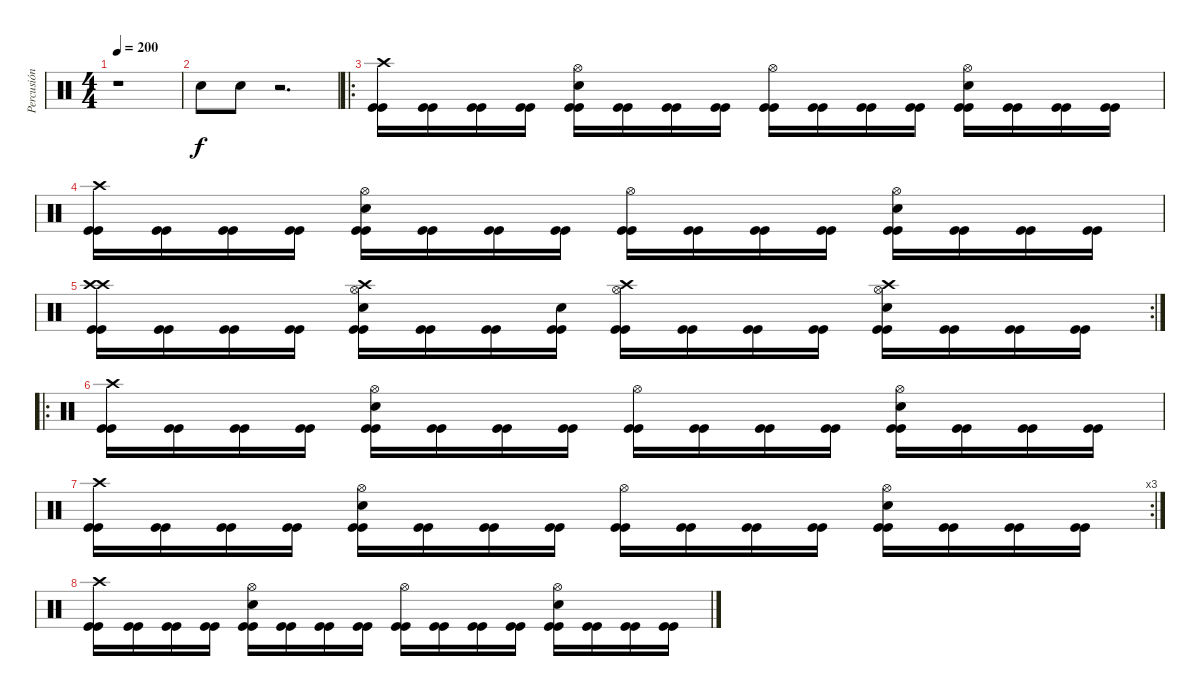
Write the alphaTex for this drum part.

\track ("Percusión" "Percusión") {instrument percussion}
\staff {score}
\articulation defaults
\ts (4 4)
\tempo 200
\clef neutral
\ks c
r.1{dy f} |
"Snare (hit) 2".8 "Snare (hit) 2".8 r.2{d} |
\ro
("Kick (hit)" "Kick (hit)" "Crash high (hit)").16 ("Kick (hit)" "Kick (hit)").16 ("Kick (hit)" "Kick (hit)").16 ("Kick (hit)" "Kick (hit)").16 ("Kick (hit)" "Kick (hit)" "Snare (hit) 2" "Hi-Hat (open)").16 ("Kick (hit)" "Kick (hit)").16 ("Kick (hit)" "Kick (hit)").16 ("Kick (hit)" "Kick (hit)").16 ("Kick (hit)" "Kick (hit)" "Hi-Hat (open)").16 ("Kick (hit)" "Kick (hit)").16 ("Kick (hit)" "Kick (hit)").16 ("Kick (hit)" "Kick (hit)").16 ("Kick (hit)" "Kick (hit)" "Snare (hit) 2" "Hi-Hat (open)").16 ("Kick (hit)" "Kick (hit)").16 ("Kick (hit)" "Kick (hit)").16 ("Kick (hit)" "Kick (hit)").16 |
("Kick (hit)" "Kick (hit)" "Crash high (hit)").16 ("Kick (hit)" "Kick (hit)").16 ("Kick (hit)" "Kick (hit)").16 ("Kick (hit)" "Kick (hit)").16 ("Kick (hit)" "Kick (hit)" "Snare (hit) 2" "Hi-Hat (open)").16 ("Kick (hit)" "Kick (hit)").16 ("Kick (hit)" "Kick (hit)").16 ("Kick (hit)" "Kick (hit)").16 ("Kick (hit)" "Kick (hit)" "Hi-Hat (open)").16 ("Kick (hit)" "Kick (hit)").16 ("Kick (hit)" "Kick (hit)").16 ("Kick (hit)" "Kick (hit)").16 ("Kick (hit)" "Kick (hit)" "Snare (hit) 2" "Hi-Hat (open)").16 ("Kick (hit)" "Kick (hit)").16 ("Kick (hit)" "Kick (hit)").16 ("Kick (hit)" "Kick (hit)").16 |
\rc 2
("Kick (hit)" "Kick (hit)" "Crash high (hit)" "Crash high (hit)").16 ("Kick (hit)" "Kick (hit)").16 ("Kick (hit)" "Kick (hit)").16 ("Kick (hit)" "Kick (hit)").16 ("Kick (hit)" "Kick (hit)" "Snare (hit) 2" "Hi-Hat (open)" "Crash high (hit)").16 ("Kick (hit)" "Kick (hit)").16 ("Kick (hit)" "Kick (hit)").16 ("Kick (hit)" "Kick (hit)" "Snare (hit)").16 ("Kick (hit)" "Kick (hit)" "Hi-Hat (open)" "Crash high (hit)").16 ("Kick (hit)" "Kick (hit)").16 ("Kick (hit)" "Kick (hit)").16 ("Kick (hit)" "Kick (hit)").16 ("Kick (hit)" "Kick (hit)" "Snare (hit) 2" "Hi-Hat (open)" "Crash high (hit)").16 ("Kick (hit)" "Kick (hit)").16 ("Kick (hit)" "Kick (hit)").16 ("Kick (hit)" "Kick (hit)").16 |
\ro
("Kick (hit)" "Kick (hit)" "Crash high (hit)").16 ("Kick (hit)" "Kick (hit)").16 ("Kick (hit)" "Kick (hit)").16 ("Kick (hit)" "Kick (hit)").16 ("Kick (hit)" "Kick (hit)" "Snare (hit) 2" "Hi-Hat (open)").16 ("Kick (hit)" "Kick (hit)").16 ("Kick (hit)" "Kick (hit)").16 ("Kick (hit)" "Kick (hit)").16 ("Kick (hit)" "Kick (hit)" "Hi-Hat (open)").16 ("Kick (hit)" "Kick (hit)").16 ("Kick (hit)" "Kick (hit)").16 ("Kick (hit)" "Kick (hit)").16 ("Kick (hit)" "Kick (hit)" "Snare (hit) 2" "Hi-Hat (open)").16 ("Kick (hit)" "Kick (hit)").16 ("Kick (hit)" "Kick (hit)").16 ("Kick (hit)" "Kick (hit)").16 |
\rc 3
("Kick (hit)" "Kick (hit)" "Crash high (hit)").16 ("Kick (hit)" "Kick (hit)").16 ("Kick (hit)" "Kick (hit)").16 ("Kick (hit)" "Kick (hit)").16 ("Kick (hit)" "Kick (hit)" "Snare (hit) 2" "Hi-Hat (open)").16 ("Kick (hit)" "Kick (hit)").16 ("Kick (hit)" "Kick (hit)").16 ("Kick (hit)" "Kick (hit)").16 ("Kick (hit)" "Kick (hit)" "Hi-Hat (open)").16 ("Kick (hit)" "Kick (hit)").16 ("Kick (hit)" "Kick (hit)").16 ("Kick (hit)" "Kick (hit)").16 ("Kick (hit)" "Kick (hit)" "Snare (hit) 2" "Hi-Hat (open)").16 ("Kick (hit)" "Kick (hit)").16 ("Kick (hit)" "Kick (hit)").16 ("Kick (hit)" "Kick (hit)").16 |
("Kick (hit)" "Kick (hit)" "Crash high (hit)").16 ("Kick (hit)" "Kick (hit)").16 ("Kick (hit)" "Kick (hit)").16 ("Kick (hit)" "Kick (hit)").16 ("Kick (hit)" "Kick (hit)" "Snare (hit) 2" "Hi-Hat (open)").16 ("Kick (hit)" "Kick (hit)").16 ("Kick (hit)" "Kick (hit)").16 ("Kick (hit)" "Kick (hit)").16 ("Kick (hit)" "Kick (hit)" "Hi-Hat (open)").16 ("Kick (hit)" "Kick (hit)").16 ("Kick (hit)" "Kick (hit)").16 ("Kick (hit)" "Kick (hit)").16 ("Kick (hit)" "Kick (hit)" "Snare (hit) 2" "Hi-Hat (open)").16 ("Kick (hit)" "Kick (hit)").16 ("Kick (hit)" "Kick (hit)").16 ("Kick (hit)" "Kick (hit)").16
